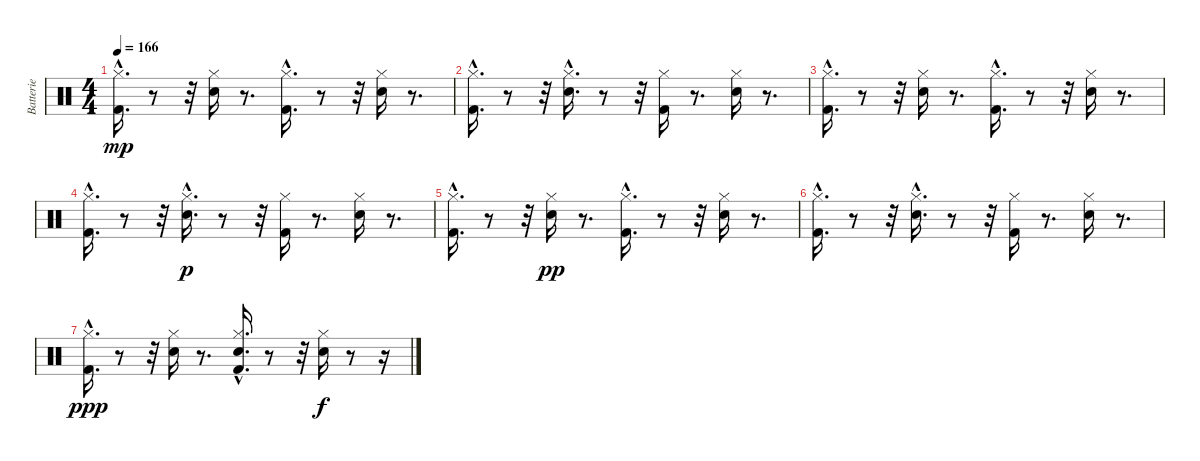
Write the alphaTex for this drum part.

\track ("Batterie" "Batterie") {instrument percussion}
\staff {score}
\articulation defaults
\ts (4 4)
\tempo 166
\clef neutral
\ks c
("Kick (hit) 2"{hac} "Hi-Hat (closed)"{hac}).16{d dy mp} r.8 r.32 ("Electric Snare (hit)" "Hi-Hat (closed)").16 r.8{d} ("Kick (hit) 2"{hac} "Hi-Hat (closed)").16{d} r.8 r.32 ("Electric Snare (hit)" "Hi-Hat (closed)").16 r.8{d} |
("Kick (hit) 2"{hac} "Hi-Hat (closed)").16{d} r.8 r.32 ("Electric Snare (hit)" "Hi-Hat (closed)"{hac}).16{d} r.8 r.32 ("Kick (hit) 2" "Hi-Hat (closed)").16 r.8{d} ("Electric Snare (hit)" "Hi-Hat (closed)").16 r.8{d} |
("Kick (hit) 2"{hac} "Hi-Hat (closed)"{hac}).16{d} r.8 r.32 ("Electric Snare (hit)" "Hi-Hat (closed)").16 r.8{d} ("Kick (hit) 2"{hac} "Hi-Hat (closed)").16{d} r.8 r.32 ("Electric Snare (hit)" "Hi-Hat (closed)").16 r.8{d} |
("Kick (hit) 2"{hac} "Hi-Hat (closed)").16{d} r.8 r.32 ("Electric Snare (hit)" "Hi-Hat (closed)"{hac}).16{d dy p} r.8 r.32 ("Kick (hit) 2" "Hi-Hat (closed)").16 r.8{d} ("Electric Snare (hit)" "Hi-Hat (closed)").16 r.8{d} |
("Kick (hit) 2"{hac} "Hi-Hat (closed)"{hac}).16{d} r.8 r.32 ("Electric Snare (hit)" "Hi-Hat (closed)").16{dy pp} r.8{d} ("Kick (hit) 2"{hac} "Hi-Hat (closed)").16{d} r.8 r.32 ("Electric Snare (hit)" "Hi-Hat (closed)").16 r.8{d} |
("Kick (hit) 2"{hac} "Hi-Hat (closed)").16{d volume 0} r.8 r.32 ("Electric Snare (hit)" "Hi-Hat (closed)"{hac}).16{d} r.8 r.32 ("Kick (hit) 2" "Hi-Hat (closed)").16 r.8{d} ("Electric Snare (hit)" "Hi-Hat (closed)").16 r.8{d} |
("Kick (hit) 2"{hac} "Hi-Hat (closed)"{hac}).16{d dy ppp} r.8 r.32 ("Electric Snare (hit)" "Hi-Hat (closed)").16 r.8{d} ("Kick (hit) 2"{hac} "Electric Snare (hit)" "Hi-Hat (closed)").16{d} r.8 r.32 ("Electric Snare (hit)" "Hi-Hat (closed)").16{dy f} r.8 r.16
